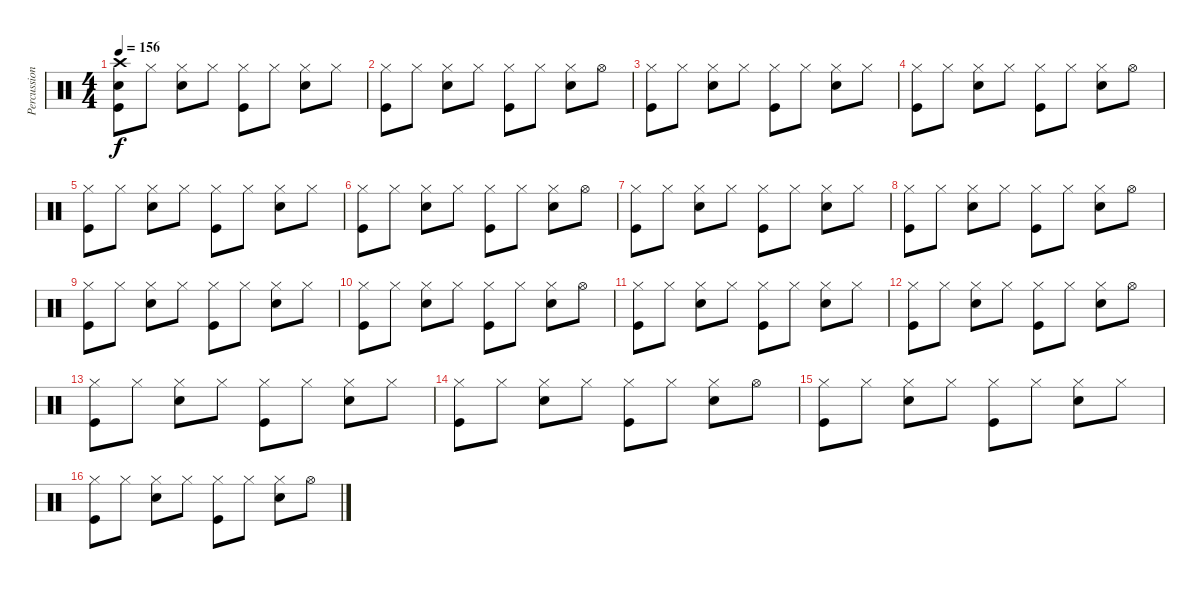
\track ("Percussion" "Percussion") {instrument percussion}
\staff {score}
\articulation defaults
\ts (4 4)
\tempo 156
\clef neutral
\ks c
("Kick (hit)" "Snare (hit)" "Crash high (hit)").8{dy f} "Hi-Hat (closed)".8 ("Electric Snare (hit)" "Hi-Hat (closed)").8 "Hi-Hat (closed)".8 ("Kick (hit)" "Hi-Hat (closed)").8 "Hi-Hat (closed)".8 ("Electric Snare (hit)" "Hi-Hat (closed)").8 "Hi-Hat (closed)".8 |
("Kick (hit)" "Hi-Hat (closed)").8 "Hi-Hat (closed)".8 ("Electric Snare (hit)" "Hi-Hat (closed)").8 "Hi-Hat (closed)".8 ("Kick (hit)" "Hi-Hat (closed)").8 "Hi-Hat (closed)".8 ("Electric Snare (hit)" "Hi-Hat (closed)").8 "Hi-Hat (open)".8 |
("Kick (hit)" "Hi-Hat (closed)").8 "Hi-Hat (closed)".8 ("Electric Snare (hit)" "Hi-Hat (closed)").8 "Hi-Hat (closed)".8 ("Kick (hit)" "Hi-Hat (closed)").8 "Hi-Hat (closed)".8 ("Electric Snare (hit)" "Hi-Hat (closed)").8 "Hi-Hat (closed)".8 |
("Kick (hit)" "Hi-Hat (closed)").8 "Hi-Hat (closed)".8 ("Electric Snare (hit)" "Hi-Hat (closed)").8 "Hi-Hat (closed)".8 ("Kick (hit)" "Hi-Hat (closed)").8 "Hi-Hat (closed)".8 ("Electric Snare (hit)" "Hi-Hat (closed)").8 "Hi-Hat (open)".8 |
("Kick (hit)" "Hi-Hat (closed)").8 "Hi-Hat (closed)".8 ("Electric Snare (hit)" "Hi-Hat (closed)").8 "Hi-Hat (closed)".8 ("Kick (hit)" "Hi-Hat (closed)").8 "Hi-Hat (closed)".8 ("Electric Snare (hit)" "Hi-Hat (closed)").8 "Hi-Hat (closed)".8 |
("Kick (hit)" "Hi-Hat (closed)").8 "Hi-Hat (closed)".8 ("Electric Snare (hit)" "Hi-Hat (closed)").8 "Hi-Hat (closed)".8 ("Kick (hit)" "Hi-Hat (closed)").8 "Hi-Hat (closed)".8 ("Electric Snare (hit)" "Hi-Hat (closed)").8 "Hi-Hat (open)".8 |
("Kick (hit)" "Hi-Hat (closed)").8 "Hi-Hat (closed)".8 ("Electric Snare (hit)" "Hi-Hat (closed)").8 "Hi-Hat (closed)".8 ("Kick (hit)" "Hi-Hat (closed)").8 "Hi-Hat (closed)".8 ("Electric Snare (hit)" "Hi-Hat (closed)").8 "Hi-Hat (closed)".8 |
("Kick (hit)" "Hi-Hat (closed)").8 "Hi-Hat (closed)".8 ("Electric Snare (hit)" "Hi-Hat (closed)").8 "Hi-Hat (closed)".8 ("Kick (hit)" "Hi-Hat (closed)").8 "Hi-Hat (closed)".8 ("Electric Snare (hit)" "Hi-Hat (closed)").8 "Hi-Hat (open)".8 |
("Kick (hit)" "Hi-Hat (closed)").8 "Hi-Hat (closed)".8 ("Electric Snare (hit)" "Hi-Hat (closed)").8 "Hi-Hat (closed)".8 ("Kick (hit)" "Hi-Hat (closed)").8 "Hi-Hat (closed)".8 ("Electric Snare (hit)" "Hi-Hat (closed)").8 "Hi-Hat (closed)".8 |
("Kick (hit)" "Hi-Hat (closed)").8 "Hi-Hat (closed)".8 ("Electric Snare (hit)" "Hi-Hat (closed)").8 "Hi-Hat (closed)".8 ("Kick (hit)" "Hi-Hat (closed)").8 "Hi-Hat (closed)".8 ("Electric Snare (hit)" "Hi-Hat (closed)").8 "Hi-Hat (open)".8 |
("Kick (hit)" "Hi-Hat (closed)").8 "Hi-Hat (closed)".8 ("Electric Snare (hit)" "Hi-Hat (closed)").8 "Hi-Hat (closed)".8 ("Kick (hit)" "Hi-Hat (closed)").8 "Hi-Hat (closed)".8 ("Electric Snare (hit)" "Hi-Hat (closed)").8 "Hi-Hat (closed)".8 |
("Kick (hit)" "Hi-Hat (closed)").8 "Hi-Hat (closed)".8 ("Electric Snare (hit)" "Hi-Hat (closed)").8 "Hi-Hat (closed)".8 ("Kick (hit)" "Hi-Hat (closed)").8 "Hi-Hat (closed)".8 ("Electric Snare (hit)" "Hi-Hat (closed)").8 "Hi-Hat (open)".8 |
("Kick (hit)" "Hi-Hat (closed)").8 "Hi-Hat (closed)".8 ("Electric Snare (hit)" "Hi-Hat (closed)").8 "Hi-Hat (closed)".8 ("Kick (hit)" "Hi-Hat (closed)").8 "Hi-Hat (closed)".8 ("Electric Snare (hit)" "Hi-Hat (closed)").8 "Hi-Hat (closed)".8 |
("Kick (hit)" "Hi-Hat (closed)").8 "Hi-Hat (closed)".8 ("Electric Snare (hit)" "Hi-Hat (closed)").8 "Hi-Hat (closed)".8 ("Kick (hit)" "Hi-Hat (closed)").8 "Hi-Hat (closed)".8 ("Electric Snare (hit)" "Hi-Hat (closed)").8 "Hi-Hat (open)".8 |
("Kick (hit)" "Hi-Hat (closed)").8 "Hi-Hat (closed)".8 ("Electric Snare (hit)" "Hi-Hat (closed)").8 "Hi-Hat (closed)".8 ("Kick (hit)" "Hi-Hat (closed)").8 "Hi-Hat (closed)".8 ("Electric Snare (hit)" "Hi-Hat (closed)").8 "Hi-Hat (closed)".8 |
("Kick (hit)" "Hi-Hat (closed)").8 "Hi-Hat (closed)".8 ("Electric Snare (hit)" "Hi-Hat (closed)").8 "Hi-Hat (closed)".8 ("Kick (hit)" "Hi-Hat (closed)").8 "Hi-Hat (closed)".8 ("Electric Snare (hit)" "Hi-Hat (closed)").8 "Hi-Hat (open)".8
